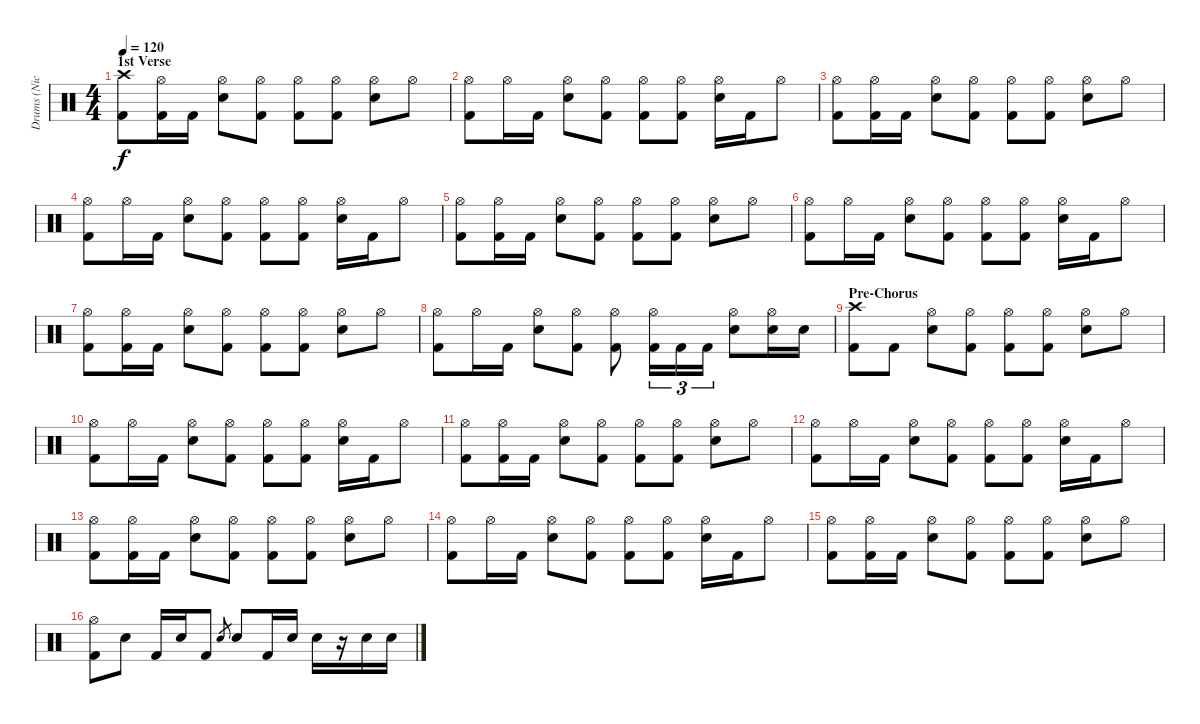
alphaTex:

\track ("Drums (Nick Menza)" "Drums (Nic") {instrument percussion}
\staff {score}
\articulation defaults
\ts (4 4)
\section ("" "1st Verse")
\tempo 120
\clef neutral
\ks c
("Crash high (hit)" "Kick (hit) 2").8{dy f} ("Hi-Hat (open)" "Kick (hit) 2").16 "Kick (hit) 2".16 ("Hi-Hat (open)" "Snare (hit) 2").8 ("Hi-Hat (open)" "Kick (hit) 2").8 ("Hi-Hat (open)" "Kick (hit) 2").8 ("Hi-Hat (open)" "Kick (hit) 2").8 ("Hi-Hat (open)" "Snare (hit) 2").8 "Hi-Hat (open)".8 |
("Hi-Hat (open)" "Kick (hit) 2").8 "Hi-Hat (open)".16 "Kick (hit) 2".16 ("Hi-Hat (open)" "Snare (hit) 2").8 ("Hi-Hat (open)" "Kick (hit) 2").8 ("Hi-Hat (open)" "Kick (hit) 2").8 ("Hi-Hat (open)" "Kick (hit) 2").8 ("Hi-Hat (open)" "Snare (hit) 2").16 "Kick (hit) 2".16 "Hi-Hat (open)".8 |
("Hi-Hat (open)" "Kick (hit) 2").8 ("Hi-Hat (open)" "Kick (hit) 2").16 "Kick (hit) 2".16 ("Hi-Hat (open)" "Snare (hit) 2").8 ("Hi-Hat (open)" "Kick (hit) 2").8 ("Hi-Hat (open)" "Kick (hit) 2").8 ("Hi-Hat (open)" "Kick (hit) 2").8 ("Hi-Hat (open)" "Snare (hit) 2").8 "Hi-Hat (open)".8 |
("Hi-Hat (open)" "Kick (hit) 2").8 "Hi-Hat (open)".16 "Kick (hit) 2".16 ("Hi-Hat (open)" "Snare (hit) 2").8 ("Hi-Hat (open)" "Kick (hit) 2").8 ("Hi-Hat (open)" "Kick (hit) 2").8 ("Hi-Hat (open)" "Kick (hit) 2").8 ("Hi-Hat (open)" "Snare (hit) 2").16 "Kick (hit) 2".16 "Hi-Hat (open)".8 |
("Hi-Hat (open)" "Kick (hit) 2").8 ("Hi-Hat (open)" "Kick (hit) 2").16 "Kick (hit) 2".16 ("Hi-Hat (open)" "Snare (hit) 2").8 ("Hi-Hat (open)" "Kick (hit) 2").8 ("Hi-Hat (open)" "Kick (hit) 2").8 ("Hi-Hat (open)" "Kick (hit) 2").8 ("Hi-Hat (open)" "Snare (hit) 2").8 "Hi-Hat (open)".8 |
("Hi-Hat (open)" "Kick (hit) 2").8 "Hi-Hat (open)".16 "Kick (hit) 2".16 ("Hi-Hat (open)" "Snare (hit) 2").8 ("Hi-Hat (open)" "Kick (hit) 2").8 ("Hi-Hat (open)" "Kick (hit) 2").8 ("Hi-Hat (open)" "Kick (hit) 2").8 ("Hi-Hat (open)" "Snare (hit) 2").16 "Kick (hit) 2".16 "Hi-Hat (open)".8 |
("Hi-Hat (open)" "Kick (hit) 2").8 ("Hi-Hat (open)" "Kick (hit) 2").16 "Kick (hit) 2".16 ("Hi-Hat (open)" "Snare (hit) 2").8 ("Hi-Hat (open)" "Kick (hit) 2").8 ("Hi-Hat (open)" "Kick (hit) 2").8 ("Hi-Hat (open)" "Kick (hit) 2").8 ("Hi-Hat (open)" "Snare (hit) 2").8 "Hi-Hat (open)".8 |
("Hi-Hat (open)" "Kick (hit) 2").8 "Hi-Hat (open)".16 "Kick (hit) 2".16 ("Hi-Hat (open)" "Snare (hit) 2").8 ("Hi-Hat (open)" "Kick (hit) 2").8 ("Hi-Hat (open)" "Kick (hit) 2").8 ("Hi-Hat (open)" "Kick (hit) 2").16{tu (3 2)} "Kick (hit) 2".16{tu (3 2)} "Kick (hit) 2".16{tu (3 2)} ("Hi-Hat (open)" "Snare (hit) 2").8 ("Hi-Hat (open)" "Snare (hit) 2").16 "Snare (hit) 2".16 |
\section ("" "Pre-Chorus")
("Crash high (hit)" "Kick (hit) 2").8 "Kick (hit) 2".8 ("Hi-Hat (open)" "Snare (hit) 2").8 ("Hi-Hat (open)" "Kick (hit) 2").8 ("Hi-Hat (open)" "Kick (hit) 2").8 ("Hi-Hat (open)" "Kick (hit) 2").8 ("Hi-Hat (open)" "Snare (hit) 2").8 "Hi-Hat (open)".8 |
("Hi-Hat (open)" "Kick (hit) 2").8 "Hi-Hat (open)".16 "Kick (hit) 2".16 ("Hi-Hat (open)" "Snare (hit) 2").8 ("Hi-Hat (open)" "Kick (hit) 2").8 ("Hi-Hat (open)" "Kick (hit) 2").8 ("Hi-Hat (open)" "Kick (hit) 2").8 ("Hi-Hat (open)" "Snare (hit) 2").16 "Kick (hit) 2".16 "Hi-Hat (open)".8 |
("Hi-Hat (open)" "Kick (hit) 2").8 ("Hi-Hat (open)" "Kick (hit) 2").16 "Kick (hit) 2".16 ("Hi-Hat (open)" "Snare (hit) 2").8 ("Hi-Hat (open)" "Kick (hit) 2").8 ("Hi-Hat (open)" "Kick (hit) 2").8 ("Hi-Hat (open)" "Kick (hit) 2").8 ("Hi-Hat (open)" "Snare (hit) 2").8 "Hi-Hat (open)".8 |
("Hi-Hat (open)" "Kick (hit) 2").8 "Hi-Hat (open)".16 "Kick (hit) 2".16 ("Hi-Hat (open)" "Snare (hit) 2").8 ("Hi-Hat (open)" "Kick (hit) 2").8 ("Hi-Hat (open)" "Kick (hit) 2").8 ("Hi-Hat (open)" "Kick (hit) 2").8 ("Hi-Hat (open)" "Snare (hit) 2").16 "Kick (hit) 2".16 "Hi-Hat (open)".8 |
("Hi-Hat (open)" "Kick (hit) 2").8 ("Hi-Hat (open)" "Kick (hit) 2").16 "Kick (hit) 2".16 ("Hi-Hat (open)" "Snare (hit) 2").8 ("Hi-Hat (open)" "Kick (hit) 2").8 ("Hi-Hat (open)" "Kick (hit) 2").8 ("Hi-Hat (open)" "Kick (hit) 2").8 ("Hi-Hat (open)" "Snare (hit) 2").8 "Hi-Hat (open)".8 |
("Hi-Hat (open)" "Kick (hit) 2").8 "Hi-Hat (open)".16 "Kick (hit) 2".16 ("Hi-Hat (open)" "Snare (hit) 2").8 ("Hi-Hat (open)" "Kick (hit) 2").8 ("Hi-Hat (open)" "Kick (hit) 2").8 ("Hi-Hat (open)" "Kick (hit) 2").8 ("Hi-Hat (open)" "Snare (hit) 2").16 "Kick (hit) 2".16 "Hi-Hat (open)".8 |
("Hi-Hat (open)" "Kick (hit) 2").8 ("Hi-Hat (open)" "Kick (hit) 2").16 "Kick (hit) 2".16 ("Hi-Hat (open)" "Snare (hit) 2").8 ("Hi-Hat (open)" "Kick (hit) 2").8 ("Hi-Hat (open)" "Kick (hit) 2").8 ("Hi-Hat (open)" "Kick (hit) 2").8 ("Hi-Hat (open)" "Snare (hit) 2").8 "Hi-Hat (open)".8 |
("Hi-Hat (open)" "Kick (hit) 2").8 "Snare (hit) 2".8 "Kick (hit) 2".16 "Snare (hit) 2".16 "Kick (hit) 2".8 "Snare (hit) 2".8{gr} "Snare (hit) 2".8 "Kick (hit) 2".16 "Snare (hit) 2".16 "Snare (hit) 2".16 r.16 "Snare (hit) 2".16 "Snare (hit) 2".16
